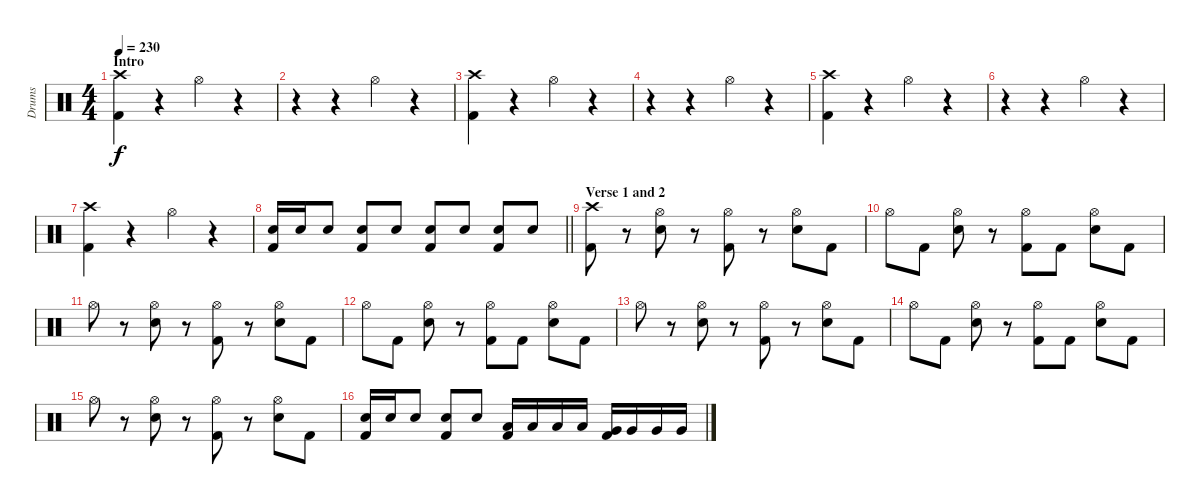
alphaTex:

\track ("Drums" "Drums") {instrument percussion}
\staff {score}
\articulation defaults
\ts (4 4)
\section ("" "Intro")
\tempo 230
\clef neutral
\ks c
("Crash high (hit)" "Kick (hit) 2").4{dy f volume 16} r.4 "Hi-Hat (open)".4 r.4 |
r.4 r.4 "Hi-Hat (open)".4 r.4 |
("Crash high (hit)" "Kick (hit) 2").4 r.4 "Hi-Hat (open)".4 r.4 |
r.4 r.4 "Hi-Hat (open)".4 r.4 |
("Crash high (hit)" "Kick (hit) 2").4 r.4 "Hi-Hat (open)".4 r.4 |
r.4 r.4 "Hi-Hat (open)".4 r.4 |
("Crash high (hit)" "Kick (hit) 2").4 r.4 "Hi-Hat (open)".4 r.4 |
\barLineRight lightlight
("Electric Snare (hit)" "Kick (hit) 2").16 "Electric Snare (hit)".16 "Electric Snare (hit)".8 ("Electric Snare (hit)" "Kick (hit) 2").8 "Electric Snare (hit)".8 ("Electric Snare (hit)" "Kick (hit) 2").8 "Electric Snare (hit)".8 ("Electric Snare (hit)" "Kick (hit) 2").8 "Electric Snare (hit)".8 |
\section ("" "Verse 1 and 2")
("Crash high (hit)" "Kick (hit) 2").8 r.8 ("Hi-Hat (open)" "Electric Snare (hit)").8 r.8 ("Hi-Hat (open)" "Kick (hit) 2").8 r.8 ("Hi-Hat (open)" "Electric Snare (hit)").8 "Kick (hit) 2".8 |
"Hi-Hat (open)".8 "Kick (hit) 2".8 ("Hi-Hat (open)" "Electric Snare (hit)").8 r.8 ("Hi-Hat (open)" "Kick (hit) 2").8 "Kick (hit) 2".8 ("Hi-Hat (open)" "Electric Snare (hit)").8 "Kick (hit) 2".8 |
"Hi-Hat (open)".8 r.8 ("Hi-Hat (open)" "Electric Snare (hit)").8 r.8 ("Hi-Hat (open)" "Kick (hit) 2").8 r.8 ("Hi-Hat (open)" "Electric Snare (hit)").8 "Kick (hit) 2".8 |
"Hi-Hat (open)".8 "Kick (hit) 2".8 ("Hi-Hat (open)" "Electric Snare (hit)").8 r.8 ("Hi-Hat (open)" "Kick (hit) 2").8 "Kick (hit) 2".8 ("Hi-Hat (open)" "Electric Snare (hit)").8 "Kick (hit) 2".8 |
"Hi-Hat (open)".8 r.8 ("Hi-Hat (open)" "Electric Snare (hit)").8 r.8 ("Hi-Hat (open)" "Kick (hit) 2").8 r.8 ("Hi-Hat (open)" "Electric Snare (hit)").8 "Kick (hit) 2".8 |
"Hi-Hat (open)".8 "Kick (hit) 2".8 ("Hi-Hat (open)" "Electric Snare (hit)").8 r.8 ("Hi-Hat (open)" "Kick (hit) 2").8 "Kick (hit) 2".8 ("Hi-Hat (open)" "Electric Snare (hit)").8 "Kick (hit) 2".8 |
"Hi-Hat (open)".8 r.8 ("Hi-Hat (open)" "Electric Snare (hit)").8 r.8 ("Hi-Hat (open)" "Kick (hit) 2").8 r.8 ("Hi-Hat (open)" "Electric Snare (hit)").8 "Kick (hit) 2".8 |
("Electric Snare (hit)" "Kick (hit) 2").16 "Electric Snare (hit)".16 "Electric Snare (hit)".8 ("Electric Snare (hit)" "Kick (hit) 2").8 "Electric Snare (hit)".8 ("Low Tom (hit)" "Kick (hit) 2").16 "Low Tom (hit)".16 "Low Tom (hit)".16 "Low Tom (hit)".16 ("Very Low Tom (hit)" "Kick (hit) 2").16 "Very Low Tom (hit)".16 "Very Low Tom (hit)".16 "Very Low Tom (hit)".16
